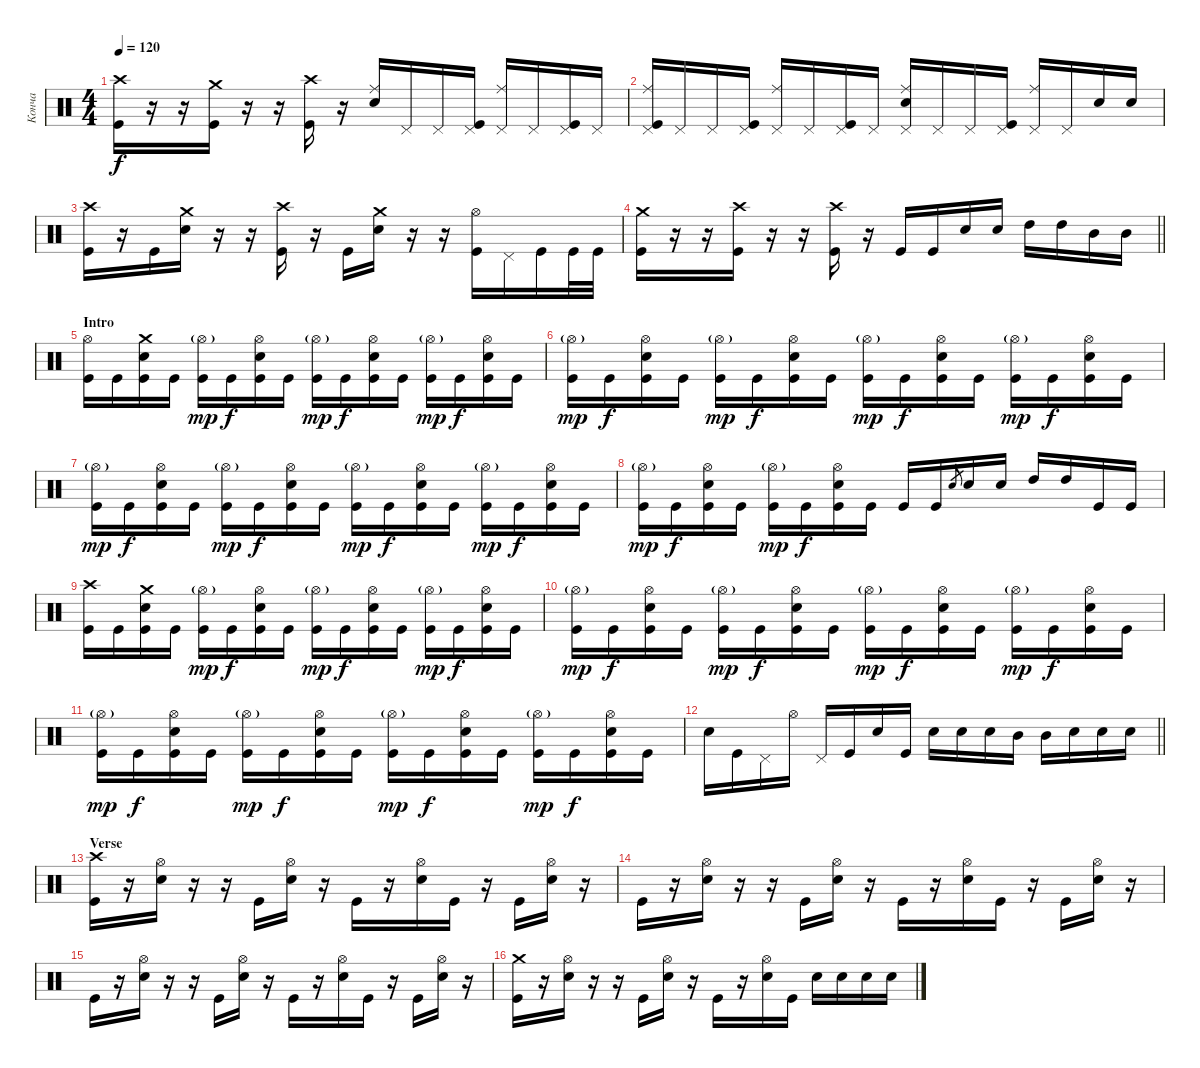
\track ("Конча" "Конча") {instrument percussion}
\staff {score}
\articulation defaults
\ts (4 4)
\tempo 120
\clef neutral
\ks c
("Crash high (hit)" "Kick (hit)").16{dy f} r.16 r.16 ("Crash medium (hit)" "Kick (hit)").16 r.16 r.16 ("Crash high (hit)" "Kick (hit)").16 r.16 ("Ride (middle)" "Electric Snare (hit)").16 "Pedal Hi-Hat (hit)".16 "Pedal Hi-Hat (hit)".16 ("Pedal Hi-Hat (hit)" "Kick (hit)").16 ("Pedal Hi-Hat (hit)" "Ride (middle)").16 "Pedal Hi-Hat (hit)".16 ("Pedal Hi-Hat (hit)" "Kick (hit)").16 "Pedal Hi-Hat (hit)".16 |
("Ride (middle)" "Pedal Hi-Hat (hit)" "Kick (hit)").16 "Pedal Hi-Hat (hit)".16 "Pedal Hi-Hat (hit)".16 ("Pedal Hi-Hat (hit)" "Kick (hit)").16 ("Ride (middle)" "Pedal Hi-Hat (hit)").16 "Pedal Hi-Hat (hit)".16 ("Pedal Hi-Hat (hit)" "Kick (hit)").16 "Pedal Hi-Hat (hit)".16 ("Ride (middle)" "Pedal Hi-Hat (hit)" "Electric Snare (hit)").16 "Pedal Hi-Hat (hit)".16 "Pedal Hi-Hat (hit)".16 ("Pedal Hi-Hat (hit)" "Kick (hit)").16 ("Ride (middle)" "Pedal Hi-Hat (hit)").16 "Pedal Hi-Hat (hit)".16 "Electric Snare (hit)".16 "Electric Snare (hit)".16 |
("Crash high (hit)" "Kick (hit)").16 r.16 "Kick (hit)".16 ("Crash medium (hit)" "Electric Snare (hit)").16 r.16 r.16 ("Crash high (hit)" "Kick (hit)").16 r.16 "Kick (hit)".16 ("Crash medium (hit)" "Electric Snare (hit)").16 r.16 r.16 ("Hi-Hat (open)" "Kick (hit)").16 "Pedal Hi-Hat (hit)".16 "Kick (hit)".16 "Kick (hit)".32 "Kick (hit)".32 |
\barLineRight lightlight
("Crash medium (hit)" "Kick (hit)").16 r.16 r.16 ("Crash high (hit)" "Kick (hit)").16 r.16 r.16 ("Crash high (hit)" "Kick (hit)").16 r.16 "Kick (hit)".16 "Kick (hit)".16 "Electric Snare (hit)".16 "Electric Snare (hit)".16 "High Tom (hit)".16 "High Tom (hit)".16 "Mid Tom (hit)".16 "Mid Tom (hit)".16 |
\section ("" "Intro")
("Hi-Hat (open)" "Kick (hit)").16 "Kick (hit)".16 ("Crash medium (hit)" "Kick (hit)" "Electric Snare (hit)").16 "Kick (hit)".16 ("Hi-Hat (open)"{g} "Kick (hit)").16{dy mp} "Kick (hit)".16{dy f} ("Hi-Hat (open)" "Kick (hit)" "Electric Snare (hit)").16 "Kick (hit)".16 ("Hi-Hat (open)"{g} "Kick (hit)").16{dy mp} "Kick (hit)".16{dy f} ("Hi-Hat (open)" "Kick (hit)" "Electric Snare (hit)").16 "Kick (hit)".16 ("Hi-Hat (open)"{g} "Kick (hit)").16{dy mp} "Kick (hit)".16{dy f} ("Hi-Hat (open)" "Kick (hit)" "Electric Snare (hit)").16 "Kick (hit)".16 |
("Hi-Hat (open)"{g} "Kick (hit)").16{dy mp} "Kick (hit)".16{dy f} ("Hi-Hat (open)" "Kick (hit)" "Electric Snare (hit)").16 "Kick (hit)".16 ("Hi-Hat (open)"{g} "Kick (hit)").16{dy mp} "Kick (hit)".16{dy f} ("Hi-Hat (open)" "Kick (hit)" "Electric Snare (hit)").16 "Kick (hit)".16 ("Hi-Hat (open)"{g} "Kick (hit)").16{dy mp} "Kick (hit)".16{dy f} ("Hi-Hat (open)" "Kick (hit)" "Electric Snare (hit)").16 "Kick (hit)".16 ("Hi-Hat (open)"{g} "Kick (hit)").16{dy mp} "Kick (hit)".16{dy f} ("Hi-Hat (open)" "Kick (hit)" "Electric Snare (hit)").16 "Kick (hit)".16 |
("Hi-Hat (open)"{g} "Kick (hit)").16{dy mp} "Kick (hit)".16{dy f} ("Hi-Hat (open)" "Kick (hit)" "Electric Snare (hit)").16 "Kick (hit)".16 ("Hi-Hat (open)"{g} "Kick (hit)").16{dy mp} "Kick (hit)".16{dy f} ("Hi-Hat (open)" "Kick (hit)" "Electric Snare (hit)").16 "Kick (hit)".16 ("Hi-Hat (open)"{g} "Kick (hit)").16{dy mp} "Kick (hit)".16{dy f} ("Hi-Hat (open)" "Kick (hit)" "Electric Snare (hit)").16 "Kick (hit)".16 ("Hi-Hat (open)"{g} "Kick (hit)").16{dy mp} "Kick (hit)".16{dy f} ("Hi-Hat (open)" "Kick (hit)" "Electric Snare (hit)").16 "Kick (hit)".16 |
("Hi-Hat (open)"{g} "Kick (hit)").16{dy mp} "Kick (hit)".16{dy f} ("Hi-Hat (open)" "Kick (hit)" "Electric Snare (hit)").16 "Kick (hit)".16 ("Hi-Hat (open)"{g} "Kick (hit)").16{dy mp} "Kick (hit)".16{dy f} ("Hi-Hat (open)" "Kick (hit)" "Electric Snare (hit)").16 "Kick (hit)".16 "Kick (hit)".16 "Kick (hit)".16 "Electric Snare (hit)".8{gr} "Electric Snare (hit)".16 "Electric Snare (hit)".16 "High Tom (hit)".16 "High Tom (hit)".16 "Kick (hit)".16 "Kick (hit)".16 |
("Crash high (hit)" "Kick (hit)").16 "Kick (hit)".16 ("Crash medium (hit)" "Kick (hit)" "Electric Snare (hit)").16 "Kick (hit)".16 ("Hi-Hat (open)"{g} "Kick (hit)").16{dy mp} "Kick (hit)".16{dy f} ("Hi-Hat (open)" "Kick (hit)" "Electric Snare (hit)").16 "Kick (hit)".16 ("Hi-Hat (open)"{g} "Kick (hit)").16{dy mp} "Kick (hit)".16{dy f} ("Hi-Hat (open)" "Kick (hit)" "Electric Snare (hit)").16 "Kick (hit)".16 ("Hi-Hat (open)"{g} "Kick (hit)").16{dy mp} "Kick (hit)".16{dy f} ("Hi-Hat (open)" "Kick (hit)" "Electric Snare (hit)").16 "Kick (hit)".16 |
("Hi-Hat (open)"{g} "Kick (hit)").16{dy mp} "Kick (hit)".16{dy f} ("Hi-Hat (open)" "Kick (hit)" "Electric Snare (hit)").16 "Kick (hit)".16 ("Hi-Hat (open)"{g} "Kick (hit)").16{dy mp} "Kick (hit)".16{dy f} ("Hi-Hat (open)" "Kick (hit)" "Electric Snare (hit)").16 "Kick (hit)".16 ("Hi-Hat (open)"{g} "Kick (hit)").16{dy mp} "Kick (hit)".16{dy f} ("Hi-Hat (open)" "Kick (hit)" "Electric Snare (hit)").16 "Kick (hit)".16 ("Hi-Hat (open)"{g} "Kick (hit)").16{dy mp} "Kick (hit)".16{dy f} ("Hi-Hat (open)" "Kick (hit)" "Electric Snare (hit)").16 "Kick (hit)".16 |
("Hi-Hat (open)"{g} "Kick (hit)").16{dy mp} "Kick (hit)".16{dy f} ("Hi-Hat (open)" "Kick (hit)" "Electric Snare (hit)").16 "Kick (hit)".16 ("Hi-Hat (open)"{g} "Kick (hit)").16{dy mp} "Kick (hit)".16{dy f} ("Hi-Hat (open)" "Kick (hit)" "Electric Snare (hit)").16 "Kick (hit)".16 ("Hi-Hat (open)"{g} "Kick (hit)").16{dy mp} "Kick (hit)".16{dy f} ("Hi-Hat (open)" "Kick (hit)" "Electric Snare (hit)").16 "Kick (hit)".16 ("Hi-Hat (open)"{g} "Kick (hit)").16{dy mp} "Kick (hit)".16{dy f} ("Hi-Hat (open)" "Kick (hit)" "Electric Snare (hit)").16 "Kick (hit)".16 |
\barLineRight lightlight "Electric Snare (hit)".16 "Kick (hit)".16 "Pedal Hi-Hat (hit)".16 "Hi-Hat (open)".16 "Pedal Hi-Hat (hit)".16 "Kick (hit)".16 "Electric Snare (hit)".16 "Kick (hit)".16 "Electric Snare (hit)".16 "Electric Snare (hit)".16 "Electric Snare (hit)".16 "Mid Tom (hit)".16 "Mid Tom (hit)".16 "Electric Snare (hit)".16 "Electric Snare (hit)".16 "Electric Snare (hit)".16
|
\section ("" "Verse")
("Kick (hit)" "Crash high (hit)").16 r.16 ("Hi-Hat (open)" "Electric Snare (hit)").16 r.16 r.16 "Kick (hit)".16 ("Hi-Hat (open)" "Electric Snare (hit)").16 r.16 "Kick (hit)".16 r.16 ("Hi-Hat (open)" "Electric Snare (hit)").16 "Kick (hit)".16 r.16 "Kick (hit)".16 ("Hi-Hat (open)" "Electric Snare (hit)").16 r.16 |
"Kick (hit)".16 r.16 ("Hi-Hat (open)" "Electric Snare (hit)").16 r.16 r.16 "Kick (hit)".16 ("Hi-Hat (open)" "Electric Snare (hit)").16 r.16 "Kick (hit)".16 r.16 ("Hi-Hat (open)" "Electric Snare (hit)").16 "Kick (hit)".16 r.16 "Kick (hit)".16 ("Hi-Hat (open)" "Electric Snare (hit)").16 r.16 |
"Kick (hit)".16 r.16 ("Hi-Hat (open)" "Electric Snare (hit)").16 r.16 r.16 "Kick (hit)".16 ("Hi-Hat (open)" "Electric Snare (hit)").16 r.16 "Kick (hit)".16 r.16 ("Hi-Hat (open)" "Electric Snare (hit)").16 "Kick (hit)".16 r.16 "Kick (hit)".16 ("Hi-Hat (open)" "Electric Snare (hit)").16 r.16 |
("Kick (hit)" "Crash medium (hit)").16 r.16 ("Hi-Hat (open)" "Electric Snare (hit)").16 r.16 r.16 "Kick (hit)".16 ("Hi-Hat (open)" "Electric Snare (hit)").16 r.16 "Kick (hit)".16 r.16 ("Hi-Hat (open)" "Electric Snare (hit)").16 "Kick (hit)".16 "Electric Snare (hit)".16 "Electric Snare (hit)".16 "Electric Snare (hit)".16 "Electric Snare (hit)".16
